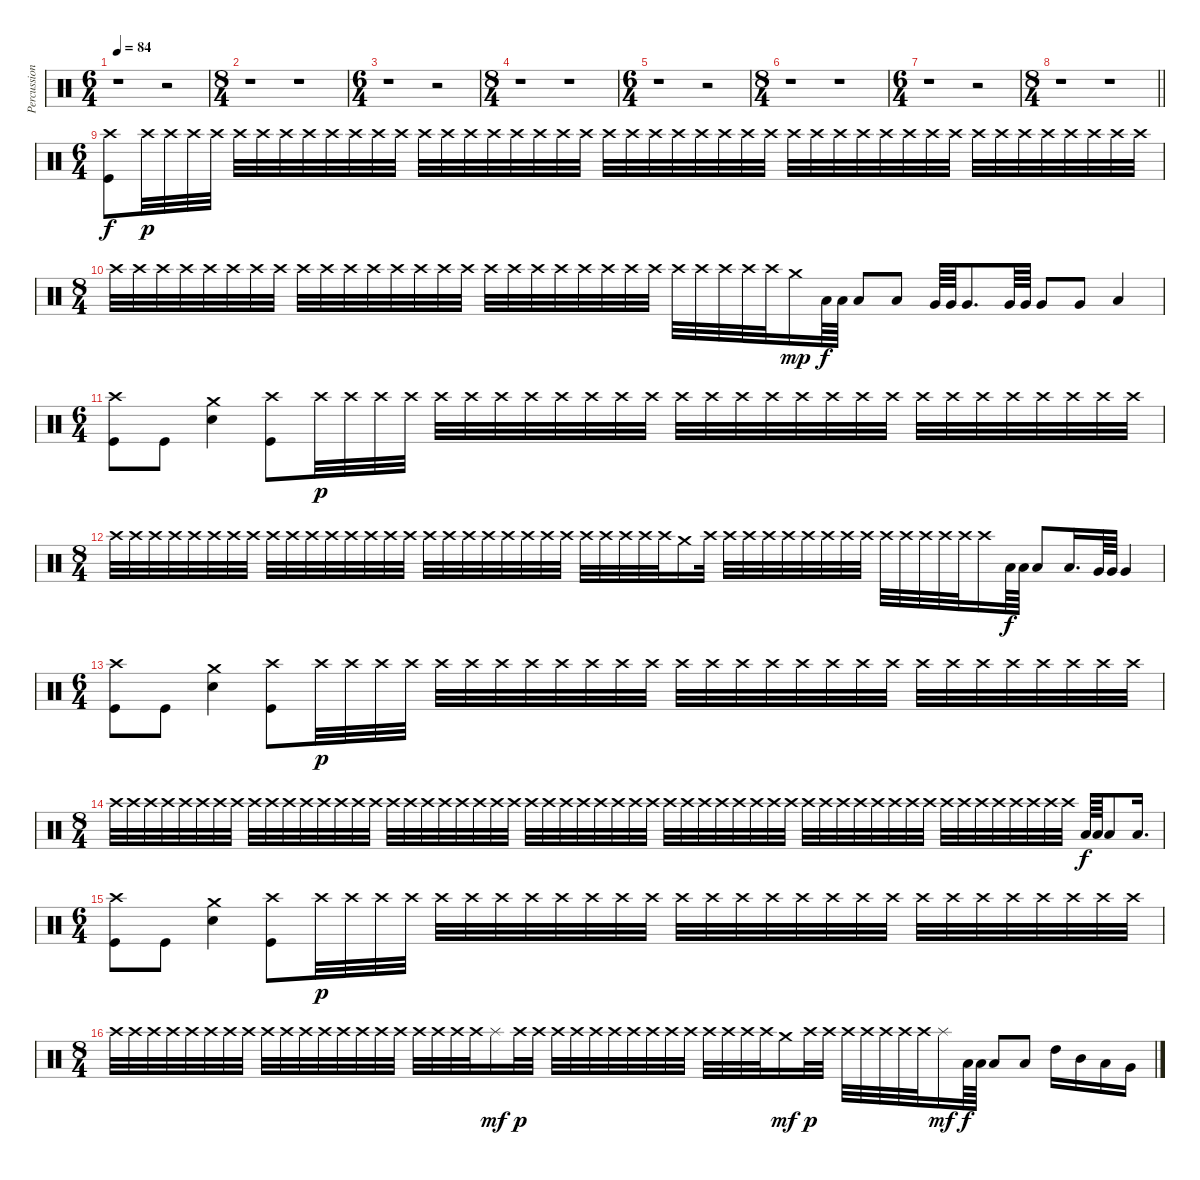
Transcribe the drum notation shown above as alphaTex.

\track ("Percussion" "Percussion") {instrument percussion}
\staff {score}
\articulation defaults
\ts (6 4)
\tempo 84
\clef neutral
\ks c
r.1{dy f} r.2 |
\ts (8 4)
r.1 r.1 |
\ts (6 4)
r.1 r.2 |
\ts (8 4)
r.1 r.1 |
\ts (6 4)
r.1 r.2 |
\ts (8 4)
r.1 r.1 |
\ts (6 4)
r.1 r.2 |
\ts (8 4)
\barLineRight lightlight
r.1 r.1 |
\ts (6 4)
\section ("" "")
("Crash high (hit)" "Kick (hit)").8 "Crash high (hit)".32{dy p} "Crash high (hit)".32 "Crash high (hit)".32 "Crash high (hit)".32 "Crash high (hit)".32 "Crash high (hit)".32 "Crash high (hit)".32 "Crash high (hit)".32 "Crash high (hit)".32 "Crash high (hit)".32 "Crash high (hit)".32 "Crash high (hit)".32 "Crash high (hit)".32 "Crash high (hit)".32 "Crash high (hit)".32 "Crash high (hit)".32 "Crash high (hit)".32 "Crash high (hit)".32 "Crash high (hit)".32 "Crash high (hit)".32 "Crash high (hit)".32 "Crash high (hit)".32 "Crash high (hit)".32 "Crash high (hit)".32 "Crash high (hit)".32 "Crash high (hit)".32 "Crash high (hit)".32 "Crash high (hit)".32 "Crash high (hit)".32 "Crash high (hit)".32 "Crash high (hit)".32 "Crash high (hit)".32 "Crash high (hit)".32 "Crash high (hit)".32 "Crash high (hit)".32 "Crash high (hit)".32 "Crash high (hit)".32 "Crash high (hit)".32 "Crash high (hit)".32 "Crash high (hit)".32 "Crash high (hit)".32 "Crash high (hit)".32 "Crash high (hit)".32 "Crash high (hit)".32 |
\ts (8 4)
"Crash high (hit)".32 "Crash high (hit)".32 "Crash high (hit)".32 "Crash high (hit)".32 "Crash high (hit)".32 "Crash high (hit)".32 "Crash high (hit)".32 "Crash high (hit)".32 "Crash high (hit)".32 "Crash high (hit)".32 "Crash high (hit)".32 "Crash high (hit)".32 "Crash high (hit)".32 "Crash high (hit)".32 "Crash high (hit)".32 "Crash high (hit)".32 "Crash high (hit)".32 "Crash high (hit)".32 "Crash high (hit)".32 "Crash high (hit)".32 "Crash high (hit)".32 "Crash high (hit)".32 "Crash high (hit)".32 "Crash high (hit)".32 "Crash high (hit)".32 "Crash high (hit)".32 "Crash high (hit)".32 "Crash high (hit)".32 "Crash high (hit)".32 "Crash medium (hit)".16{dy mp} "Low Tom (hit)".64{dy f} "Low Tom (hit)".64 "Low Tom (hit)".8 "Low Tom (hit)".8 "Very Low Tom (hit)".64 "Very Low Tom (hit)".64 "Very Low Tom (hit)".8{d} "Very Low Tom (hit)".64 "Very Low Tom (hit)".64 "Very Low Tom (hit)".8 "Very Low Tom (hit)".8 "Low Floor Tom (hit)".4 |
\ts (6 4)
("Crash high (hit)" "Kick (hit)").8 "Kick (hit)".8 ("Crash medium (hit)" "Snare (hit) 2").4 ("Crash high (hit)" "Kick (hit)").8 "Crash high (hit)".32{dy p} "Crash high (hit)".32 "Crash high (hit)".32 "Crash high (hit)".32 "Crash high (hit)".32 "Crash high (hit)".32 "Crash high (hit)".32 "Crash high (hit)".32 "Crash high (hit)".32 "Crash high (hit)".32 "Crash high (hit)".32 "Crash high (hit)".32 "Crash high (hit)".32 "Crash high (hit)".32 "Crash high (hit)".32 "Crash high (hit)".32 "Crash high (hit)".32 "Crash high (hit)".32 "Crash high (hit)".32 "Crash high (hit)".32 "Crash high (hit)".32 "Crash high (hit)".32 "Crash high (hit)".32 "Crash high (hit)".32 "Crash high (hit)".32 "Crash high (hit)".32 "Crash high (hit)".32 "Crash high (hit)".32 |
\ts (8 4)
"Crash high (hit)".32 "Crash high (hit)".32 "Crash high (hit)".32 "Crash high (hit)".32 "Crash high (hit)".32 "Crash high (hit)".32 "Crash high (hit)".32 "Crash high (hit)".32 "Crash high (hit)".32 "Crash high (hit)".32 "Crash high (hit)".32 "Crash high (hit)".32 "Crash high (hit)".32 "Crash high (hit)".32 "Crash high (hit)".32 "Crash high (hit)".32 "Crash high (hit)".32 "Crash high (hit)".32 "Crash high (hit)".32 "Crash high (hit)".32 "Crash high (hit)".32 "Crash high (hit)".32 "Crash high (hit)".32 "Crash high (hit)".32 "Crash high (hit)".32 "Crash high (hit)".32 "Crash high (hit)".32 "Crash high (hit)".32 "Crash high (hit)".32 "Crash medium (hit)".16 "Crash high (hit)".32 "Crash high (hit)".32 "Crash high (hit)".32 "Crash high (hit)".32 "Crash high (hit)".32 "Crash high (hit)".32 "Crash high (hit)".32 "Crash high (hit)".32 "Crash high (hit)".32 "Crash high (hit)".32 "Crash high (hit)".32 "Crash high (hit)".32 "Crash high (hit)".32 "Crash high (hit)".32 "Crash high (hit)".16 "Low Tom (hit)".64{dy f} "Low Tom (hit)".64 "Low Tom (hit)".8 "Low Tom (hit)".16{d} "Very Low Tom (hit)".64 "Very Low Tom (hit)".64 "Very Low Tom (hit)".4 |
\ts (6 4)
("Crash high (hit)" "Kick (hit)").8 "Kick (hit)".8 ("Crash medium (hit)" "Snare (hit) 2").4 ("Crash high (hit)" "Kick (hit)").8 "Crash high (hit)".32{dy p} "Crash high (hit)".32 "Crash high (hit)".32 "Crash high (hit)".32 "Crash high (hit)".32 "Crash high (hit)".32 "Crash high (hit)".32 "Crash high (hit)".32 "Crash high (hit)".32 "Crash high (hit)".32 "Crash high (hit)".32 "Crash high (hit)".32 "Crash high (hit)".32 "Crash high (hit)".32 "Crash high (hit)".32 "Crash high (hit)".32 "Crash high (hit)".32 "Crash high (hit)".32 "Crash high (hit)".32 "Crash high (hit)".32 "Crash high (hit)".32 "Crash high (hit)".32 "Crash high (hit)".32 "Crash high (hit)".32 "Crash high (hit)".32 "Crash high (hit)".32 "Crash high (hit)".32 "Crash high (hit)".32 |
\ts (8 4)
"Crash high (hit)".32 "Crash high (hit)".32 "Crash high (hit)".32 "Crash high (hit)".32 "Crash high (hit)".32 "Crash high (hit)".32 "Crash high (hit)".32 "Crash high (hit)".32 "Crash high (hit)".32 "Crash high (hit)".32 "Crash high (hit)".32 "Crash high (hit)".32 "Crash high (hit)".32 "Crash high (hit)".32 "Crash high (hit)".32 "Crash high (hit)".32 "Crash high (hit)".32 "Crash high (hit)".32 "Crash high (hit)".32 "Crash high (hit)".32 "Crash high (hit)".32 "Crash high (hit)".32 "Crash high (hit)".32 "Crash high (hit)".32 "Crash high (hit)".32 "Crash high (hit)".32 "Crash high (hit)".32 "Crash high (hit)".32 "Crash high (hit)".32 "Crash high (hit)".32 "Crash high (hit)".32 "Crash high (hit)".32 "Crash high (hit)".32 "Crash high (hit)".32 "Crash high (hit)".32 "Crash high (hit)".32 "Crash high (hit)".32 "Crash high (hit)".32 "Crash high (hit)".32 "Crash high (hit)".32 "Crash high (hit)".32 "Crash high (hit)".32 "Crash high (hit)".32 "Crash high (hit)".32 "Crash high (hit)".32 "Crash high (hit)".32 "Crash high (hit)".32 "Crash high (hit)".32 "Crash high (hit)".32 "Crash high (hit)".32 "Crash high (hit)".32 "Crash high (hit)".32 "Crash high (hit)".32 "Crash high (hit)".32 "Crash high (hit)".32 "Crash high (hit)".32 "Low Tom (hit)".64{dy f} "Low Tom (hit)".64 "Low Tom (hit)".8 "Low Tom (hit)".16{d} |
\ts (6 4)
("Crash high (hit)" "Kick (hit)").8 "Kick (hit)".8 ("Crash medium (hit)" "Snare (hit) 2").4 ("Crash high (hit)" "Kick (hit)").8 "Crash high (hit)".32{dy p} "Crash high (hit)".32 "Crash high (hit)".32 "Crash high (hit)".32 "Crash high (hit)".32 "Crash high (hit)".32 "Crash high (hit)".32 "Crash high (hit)".32 "Crash high (hit)".32 "Crash high (hit)".32 "Crash high (hit)".32 "Crash high (hit)".32 "Crash high (hit)".32 "Crash high (hit)".32 "Crash high (hit)".32 "Crash high (hit)".32 "Crash high (hit)".32 "Crash high (hit)".32 "Crash high (hit)".32 "Crash high (hit)".32 "Crash high (hit)".32 "Crash high (hit)".32 "Crash high (hit)".32 "Crash high (hit)".32 "Crash high (hit)".32 "Crash high (hit)".32 "Crash high (hit)".32 "Crash high (hit)".32 |
\ts (8 4)
"Crash high (hit)".32 "Crash high (hit)".32 "Crash high (hit)".32 "Crash high (hit)".32 "Crash high (hit)".32 "Crash high (hit)".32 "Crash high (hit)".32 "Crash high (hit)".32 "Crash high (hit)".32 "Crash high (hit)".32 "Crash high (hit)".32 "Crash high (hit)".32 "Crash high (hit)".32 "Crash high (hit)".32 "Crash high (hit)".32 "Crash high (hit)".32 "Crash high (hit)".32 "Crash high (hit)".32 "Crash high (hit)".32 "Crash high (hit)".32 "Splash (hit)".16{dy mf} "Crash high (hit)".32{dy p} "Crash high (hit)".32 "Crash high (hit)".32 "Crash high (hit)".32 "Crash high (hit)".32 "Crash high (hit)".32 "Crash high (hit)".32 "Crash high (hit)".32 "Crash high (hit)".32 "Crash high (hit)".32 "Crash high (hit)".32 "Crash high (hit)".32 "Crash high (hit)".32 "Crash high (hit)".32 "Crash medium (hit)".16{dy mf} "Crash high (hit)".32{dy p} "Crash high (hit)".32 "Crash high (hit)".32 "Crash high (hit)".32 "Crash high (hit)".32 "Crash high (hit)".32 "Crash high (hit)".32 "Splash (hit)".16{dy mf} "Low Tom (hit)".64{dy f} "Low Tom (hit)".64 "Low Tom (hit)".8 "Low Tom (hit)".8 "High Tom (hit)".16 "Mid Tom (hit)".16 "Low Tom (hit)".16 "Very Low Tom (hit)".16
